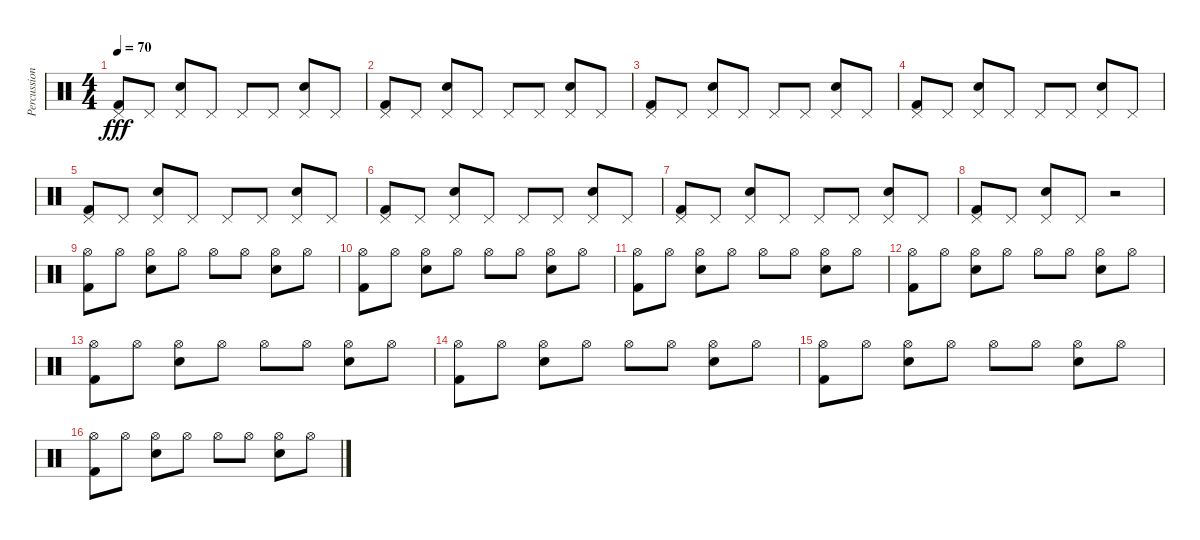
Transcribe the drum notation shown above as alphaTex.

\track ("Percussions" "Percussion") {instrument percussion}
\staff {score}
\articulation defaults
\ts (4 4)
\tempo 70
\clef neutral
\ks c
("Pedal Hi-Hat (hit)" "Kick (hit) 2").8{dy fff} "Pedal Hi-Hat (hit)".8 ("Pedal Hi-Hat (hit)" "Electric Snare (hit)").8 "Pedal Hi-Hat (hit)".8 "Pedal Hi-Hat (hit)".8 "Pedal Hi-Hat (hit)".8 ("Pedal Hi-Hat (hit)" "Electric Snare (hit)").8 "Pedal Hi-Hat (hit)".8 |
("Pedal Hi-Hat (hit)" "Kick (hit) 2").8 "Pedal Hi-Hat (hit)".8 ("Pedal Hi-Hat (hit)" "Electric Snare (hit)").8 "Pedal Hi-Hat (hit)".8 "Pedal Hi-Hat (hit)".8 "Pedal Hi-Hat (hit)".8 ("Pedal Hi-Hat (hit)" "Electric Snare (hit)").8 "Pedal Hi-Hat (hit)".8 |
("Pedal Hi-Hat (hit)" "Kick (hit) 2").8 "Pedal Hi-Hat (hit)".8 ("Pedal Hi-Hat (hit)" "Electric Snare (hit)").8 "Pedal Hi-Hat (hit)".8 "Pedal Hi-Hat (hit)".8 "Pedal Hi-Hat (hit)".8 ("Pedal Hi-Hat (hit)" "Electric Snare (hit)").8 "Pedal Hi-Hat (hit)".8 |
("Pedal Hi-Hat (hit)" "Kick (hit) 2").8 "Pedal Hi-Hat (hit)".8 ("Pedal Hi-Hat (hit)" "Electric Snare (hit)").8 "Pedal Hi-Hat (hit)".8 "Pedal Hi-Hat (hit)".8 "Pedal Hi-Hat (hit)".8 ("Pedal Hi-Hat (hit)" "Electric Snare (hit)").8 "Pedal Hi-Hat (hit)".8 |
("Pedal Hi-Hat (hit)" "Kick (hit) 2").8 "Pedal Hi-Hat (hit)".8 ("Pedal Hi-Hat (hit)" "Electric Snare (hit)").8 "Pedal Hi-Hat (hit)".8 "Pedal Hi-Hat (hit)".8 "Pedal Hi-Hat (hit)".8 ("Pedal Hi-Hat (hit)" "Electric Snare (hit)").8 "Pedal Hi-Hat (hit)".8 |
("Pedal Hi-Hat (hit)" "Kick (hit) 2").8 "Pedal Hi-Hat (hit)".8 ("Pedal Hi-Hat (hit)" "Electric Snare (hit)").8 "Pedal Hi-Hat (hit)".8 "Pedal Hi-Hat (hit)".8 "Pedal Hi-Hat (hit)".8 ("Pedal Hi-Hat (hit)" "Electric Snare (hit)").8 "Pedal Hi-Hat (hit)".8 |
("Pedal Hi-Hat (hit)" "Kick (hit) 2").8 "Pedal Hi-Hat (hit)".8 ("Pedal Hi-Hat (hit)" "Electric Snare (hit)").8 "Pedal Hi-Hat (hit)".8 "Pedal Hi-Hat (hit)".8 "Pedal Hi-Hat (hit)".8 ("Pedal Hi-Hat (hit)" "Electric Snare (hit)").8 "Pedal Hi-Hat (hit)".8 |
("Pedal Hi-Hat (hit)" "Kick (hit) 2").8 "Pedal Hi-Hat (hit)".8 ("Pedal Hi-Hat (hit)" "Electric Snare (hit)").8 "Pedal Hi-Hat (hit)".8 r.2 |
("Hi-Hat (open)" "Kick (hit) 2").8 "Hi-Hat (open)".8 ("Hi-Hat (open)" "Electric Snare (hit)").8 "Hi-Hat (open)".8 "Hi-Hat (open)".8 "Hi-Hat (open)".8 ("Hi-Hat (open)" "Electric Snare (hit)").8 "Hi-Hat (open)".8 |
("Hi-Hat (open)" "Kick (hit) 2").8 "Hi-Hat (open)".8 ("Hi-Hat (open)" "Electric Snare (hit)").8 "Hi-Hat (open)".8 "Hi-Hat (open)".8 "Hi-Hat (open)".8 ("Hi-Hat (open)" "Electric Snare (hit)").8 "Hi-Hat (open)".8 |
("Hi-Hat (open)" "Kick (hit) 2").8 "Hi-Hat (open)".8 ("Hi-Hat (open)" "Electric Snare (hit)").8 "Hi-Hat (open)".8 "Hi-Hat (open)".8 "Hi-Hat (open)".8 ("Hi-Hat (open)" "Electric Snare (hit)").8 "Hi-Hat (open)".8 |
("Hi-Hat (open)" "Kick (hit) 2").8 "Hi-Hat (open)".8 ("Hi-Hat (open)" "Electric Snare (hit)").8 "Hi-Hat (open)".8 "Hi-Hat (open)".8 "Hi-Hat (open)".8 ("Hi-Hat (open)" "Electric Snare (hit)").8 "Hi-Hat (open)".8 |
("Hi-Hat (open)" "Kick (hit) 2").8 "Hi-Hat (open)".8 ("Hi-Hat (open)" "Electric Snare (hit)").8 "Hi-Hat (open)".8 "Hi-Hat (open)".8 "Hi-Hat (open)".8 ("Hi-Hat (open)" "Electric Snare (hit)").8 "Hi-Hat (open)".8 |
("Hi-Hat (open)" "Kick (hit) 2").8 "Hi-Hat (open)".8 ("Hi-Hat (open)" "Electric Snare (hit)").8 "Hi-Hat (open)".8 "Hi-Hat (open)".8 "Hi-Hat (open)".8 ("Hi-Hat (open)" "Electric Snare (hit)").8 "Hi-Hat (open)".8 |
("Hi-Hat (open)" "Kick (hit) 2").8 "Hi-Hat (open)".8 ("Hi-Hat (open)" "Electric Snare (hit)").8 "Hi-Hat (open)".8 "Hi-Hat (open)".8 "Hi-Hat (open)".8 ("Hi-Hat (open)" "Electric Snare (hit)").8 "Hi-Hat (open)".8 |
("Hi-Hat (open)" "Kick (hit) 2").8 "Hi-Hat (open)".8 ("Hi-Hat (open)" "Electric Snare (hit)").8 "Hi-Hat (open)".8 "Hi-Hat (open)".8 "Hi-Hat (open)".8 ("Hi-Hat (open)" "Electric Snare (hit)").8 "Hi-Hat (open)".8
